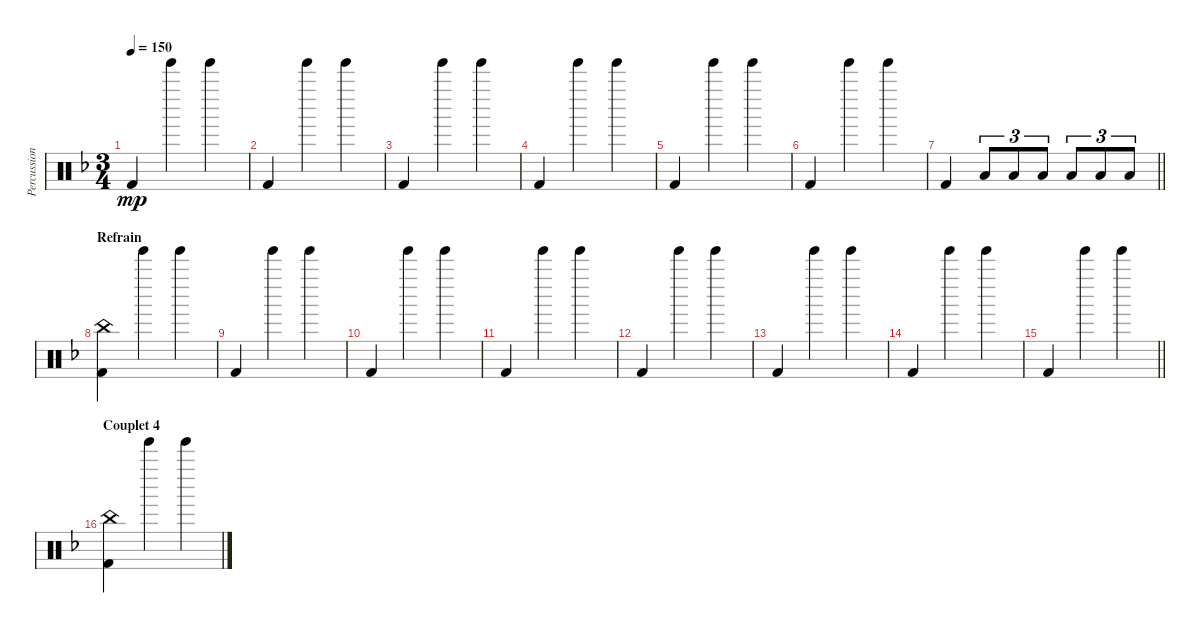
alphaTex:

\track ("Percussions" "Percussion") {instrument percussion}
\staff {score}
\articulation defaults
\ts (3 4)
\tempo 150
\clef neutral
\ks f "Kick (hit) 2".4{dy mp} "Tinkle Bell (hit)".4 "Tinkle Bell (hit)".4
|
"Kick (hit) 2".4 "Tinkle Bell (hit)".4 "Tinkle Bell (hit)".4 |
"Kick (hit) 2".4 "Tinkle Bell (hit)".4 "Tinkle Bell (hit)".4 |
"Kick (hit) 2".4 "Tinkle Bell (hit)".4 "Tinkle Bell (hit)".4 |
"Kick (hit) 2".4 "Tinkle Bell (hit)".4 "Tinkle Bell (hit)".4 |
"Kick (hit) 2".4 "Tinkle Bell (hit)".4 "Tinkle Bell (hit)".4 |
\barLineRight lightlight "Kick (hit) 2".4 "Low Tom (hit)".8{tu (3 2)} "Low Tom (hit)".8{tu (3 2)} "Low Tom (hit)".8{tu (3 2)} "Low Tom (hit)".8{tu (3 2)} "Low Tom (hit)".8{tu (3 2)} "Low Tom (hit)".8{tu (3 2)}
|
\section ("" "Refrain")
("China (hit)" "Kick (hit) 2").4 "Tinkle Bell (hit)".4 "Tinkle Bell (hit)".4 |
"Kick (hit) 2".4 "Tinkle Bell (hit)".4 "Tinkle Bell (hit)".4 |
"Kick (hit) 2".4 "Tinkle Bell (hit)".4 "Tinkle Bell (hit)".4 |
"Kick (hit) 2".4 "Tinkle Bell (hit)".4 "Tinkle Bell (hit)".4 |
"Kick (hit) 2".4 "Tinkle Bell (hit)".4 "Tinkle Bell (hit)".4 |
"Kick (hit) 2".4 "Tinkle Bell (hit)".4 "Tinkle Bell (hit)".4 |
"Kick (hit) 2".4 "Tinkle Bell (hit)".4 "Tinkle Bell (hit)".4 |
\barLineRight lightlight "Kick (hit) 2".4 "Tinkle Bell (hit)".4 "Tinkle Bell (hit)".4
|
\section ("" "Couplet 4")
("China (hit)" "Kick (hit) 2").4 "Tinkle Bell (hit)".4 "Tinkle Bell (hit)".4
